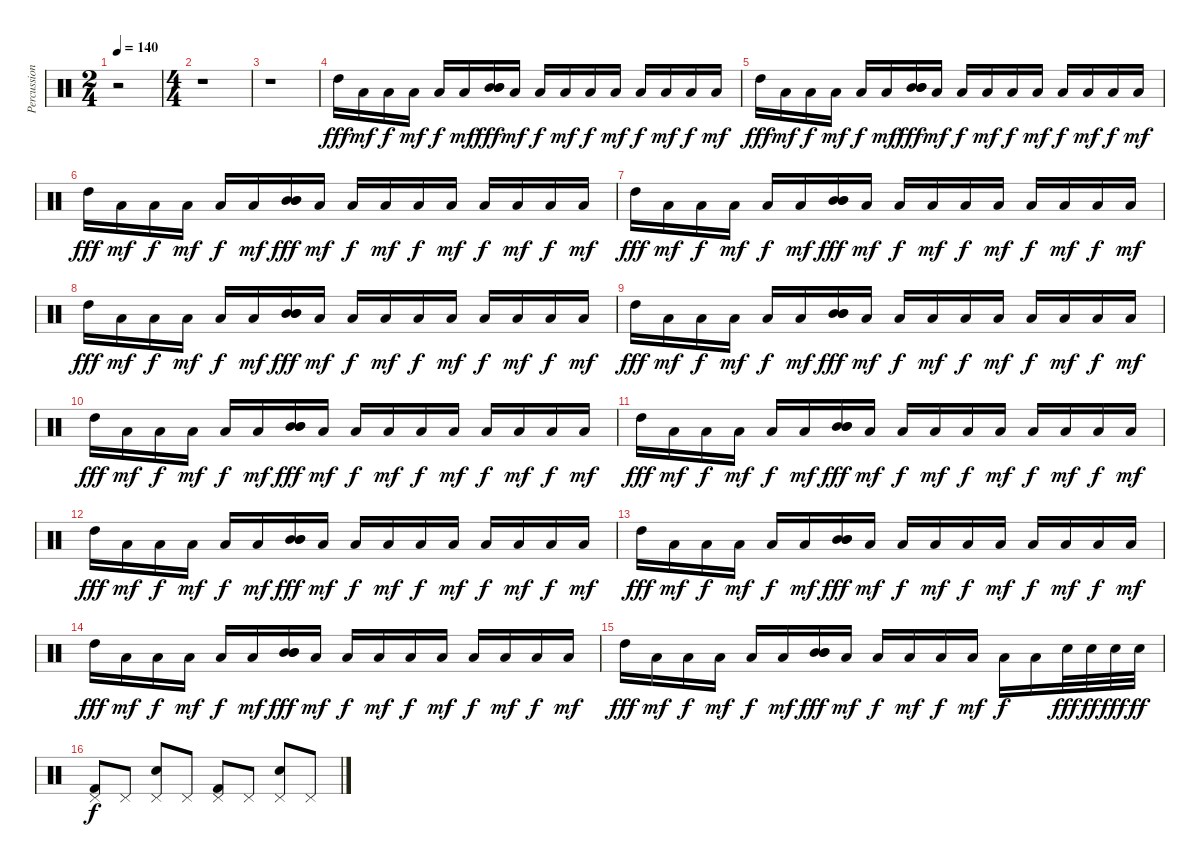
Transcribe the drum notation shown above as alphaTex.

\track ("Percussions" "Percussion") {instrument percussion}
\staff {score}
\articulation defaults
\ts (2 4)
\tempo 140
\clef neutral
\ks c
r.2{dy fff} |
\ts (4 4)
r.1 |
r.1 |
"High Tom (hit)".16 "Low Floor Tom (hit)".16{dy mf} "Low Floor Tom (hit)".16{dy f} "Low Floor Tom (hit)".16{dy mf} "Low Floor Tom (hit)".16{dy f} "Low Floor Tom (hit)".16{dy mf} ("Mid Tom (hit)" "Mid Tom (hit)" "Mid Tom (hit)").16{dy fff} "Low Floor Tom (hit)".16{dy mf} "Low Floor Tom (hit)".16{dy f} "Low Floor Tom (hit)".16{dy mf} "Low Floor Tom (hit)".16{dy f} "Low Floor Tom (hit)".16{dy mf} "Low Floor Tom (hit)".16{dy f} "Low Floor Tom (hit)".16{dy mf} "Low Floor Tom (hit)".16{dy f} "Low Floor Tom (hit)".16{dy mf} |
"High Tom (hit)".16{dy fff} "Low Floor Tom (hit)".16{dy mf} "Low Floor Tom (hit)".16{dy f} "Low Floor Tom (hit)".16{dy mf} "Low Floor Tom (hit)".16{dy f} "Low Floor Tom (hit)".16{dy mf} ("Mid Tom (hit)" "Mid Tom (hit)" "Mid Tom (hit)").16{dy fff} "Low Floor Tom (hit)".16{dy mf} "Low Floor Tom (hit)".16{dy f} "Low Floor Tom (hit)".16{dy mf} "Low Floor Tom (hit)".16{dy f} "Low Floor Tom (hit)".16{dy mf} "Low Floor Tom (hit)".16{dy f} "Low Floor Tom (hit)".16{dy mf} "Low Floor Tom (hit)".16{dy f} "Low Floor Tom (hit)".16{dy mf} |
"High Tom (hit)".16{dy fff} "Low Floor Tom (hit)".16{dy mf} "Low Floor Tom (hit)".16{dy f} "Low Floor Tom (hit)".16{dy mf} "Low Floor Tom (hit)".16{dy f} "Low Floor Tom (hit)".16{dy mf} ("Mid Tom (hit)" "Mid Tom (hit)" "Mid Tom (hit)").16{dy fff} "Low Floor Tom (hit)".16{dy mf} "Low Floor Tom (hit)".16{dy f} "Low Floor Tom (hit)".16{dy mf} "Low Floor Tom (hit)".16{dy f} "Low Floor Tom (hit)".16{dy mf} "Low Floor Tom (hit)".16{dy f} "Low Floor Tom (hit)".16{dy mf} "Low Floor Tom (hit)".16{dy f} "Low Floor Tom (hit)".16{dy mf} |
"High Tom (hit)".16{dy fff} "Low Floor Tom (hit)".16{dy mf} "Low Floor Tom (hit)".16{dy f} "Low Floor Tom (hit)".16{dy mf} "Low Floor Tom (hit)".16{dy f} "Low Floor Tom (hit)".16{dy mf} ("Mid Tom (hit)" "Mid Tom (hit)" "Mid Tom (hit)").16{dy fff} "Low Floor Tom (hit)".16{dy mf} "Low Floor Tom (hit)".16{dy f} "Low Floor Tom (hit)".16{dy mf} "Low Floor Tom (hit)".16{dy f} "Low Floor Tom (hit)".16{dy mf} "Low Floor Tom (hit)".16{dy f} "Low Floor Tom (hit)".16{dy mf} "Low Floor Tom (hit)".16{dy f} "Low Floor Tom (hit)".16{dy mf} |
"High Tom (hit)".16{dy fff} "Low Floor Tom (hit)".16{dy mf} "Low Floor Tom (hit)".16{dy f} "Low Floor Tom (hit)".16{dy mf} "Low Floor Tom (hit)".16{dy f} "Low Floor Tom (hit)".16{dy mf} ("Mid Tom (hit)" "Mid Tom (hit)" "Mid Tom (hit)").16{dy fff} "Low Floor Tom (hit)".16{dy mf} "Low Floor Tom (hit)".16{dy f} "Low Floor Tom (hit)".16{dy mf} "Low Floor Tom (hit)".16{dy f} "Low Floor Tom (hit)".16{dy mf} "Low Floor Tom (hit)".16{dy f} "Low Floor Tom (hit)".16{dy mf} "Low Floor Tom (hit)".16{dy f} "Low Floor Tom (hit)".16{dy mf} |
"High Tom (hit)".16{dy fff} "Low Floor Tom (hit)".16{dy mf} "Low Floor Tom (hit)".16{dy f} "Low Floor Tom (hit)".16{dy mf} "Low Floor Tom (hit)".16{dy f} "Low Floor Tom (hit)".16{dy mf} ("Mid Tom (hit)" "Mid Tom (hit)" "Mid Tom (hit)").16{dy fff} "Low Floor Tom (hit)".16{dy mf} "Low Floor Tom (hit)".16{dy f} "Low Floor Tom (hit)".16{dy mf} "Low Floor Tom (hit)".16{dy f} "Low Floor Tom (hit)".16{dy mf} "Low Floor Tom (hit)".16{dy f} "Low Floor Tom (hit)".16{dy mf} "Low Floor Tom (hit)".16{dy f} "Low Floor Tom (hit)".16{dy mf} |
"High Tom (hit)".16{dy fff} "Low Floor Tom (hit)".16{dy mf} "Low Floor Tom (hit)".16{dy f} "Low Floor Tom (hit)".16{dy mf} "Low Floor Tom (hit)".16{dy f} "Low Floor Tom (hit)".16{dy mf} ("Mid Tom (hit)" "Mid Tom (hit)" "Mid Tom (hit)").16{dy fff} "Low Floor Tom (hit)".16{dy mf} "Low Floor Tom (hit)".16{dy f} "Low Floor Tom (hit)".16{dy mf} "Low Floor Tom (hit)".16{dy f} "Low Floor Tom (hit)".16{dy mf} "Low Floor Tom (hit)".16{dy f} "Low Floor Tom (hit)".16{dy mf} "Low Floor Tom (hit)".16{dy f} "Low Floor Tom (hit)".16{dy mf} |
"High Tom (hit)".16{dy fff} "Low Floor Tom (hit)".16{dy mf} "Low Floor Tom (hit)".16{dy f} "Low Floor Tom (hit)".16{dy mf} "Low Floor Tom (hit)".16{dy f} "Low Floor Tom (hit)".16{dy mf} ("Mid Tom (hit)" "Mid Tom (hit)" "Mid Tom (hit)").16{dy fff} "Low Floor Tom (hit)".16{dy mf} "Low Floor Tom (hit)".16{dy f} "Low Floor Tom (hit)".16{dy mf} "Low Floor Tom (hit)".16{dy f} "Low Floor Tom (hit)".16{dy mf} "Low Floor Tom (hit)".16{dy f} "Low Floor Tom (hit)".16{dy mf} "Low Floor Tom (hit)".16{dy f} "Low Floor Tom (hit)".16{dy mf} |
"High Tom (hit)".16{dy fff} "Low Floor Tom (hit)".16{dy mf} "Low Floor Tom (hit)".16{dy f} "Low Floor Tom (hit)".16{dy mf} "Low Floor Tom (hit)".16{dy f} "Low Floor Tom (hit)".16{dy mf} ("Mid Tom (hit)" "Mid Tom (hit)" "Mid Tom (hit)").16{dy fff} "Low Floor Tom (hit)".16{dy mf} "Low Floor Tom (hit)".16{dy f} "Low Floor Tom (hit)".16{dy mf} "Low Floor Tom (hit)".16{dy f} "Low Floor Tom (hit)".16{dy mf} "Low Floor Tom (hit)".16{dy f} "Low Floor Tom (hit)".16{dy mf} "Low Floor Tom (hit)".16{dy f} "Low Floor Tom (hit)".16{dy mf} |
"High Tom (hit)".16{dy fff} "Low Floor Tom (hit)".16{dy mf} "Low Floor Tom (hit)".16{dy f} "Low Floor Tom (hit)".16{dy mf} "Low Floor Tom (hit)".16{dy f} "Low Floor Tom (hit)".16{dy mf} ("Mid Tom (hit)" "Mid Tom (hit)" "Mid Tom (hit)").16{dy fff} "Low Floor Tom (hit)".16{dy mf} "Low Floor Tom (hit)".16{dy f} "Low Floor Tom (hit)".16{dy mf} "Low Floor Tom (hit)".16{dy f} "Low Floor Tom (hit)".16{dy mf} "Low Floor Tom (hit)".16{dy f} "Low Floor Tom (hit)".16{dy mf} "Low Floor Tom (hit)".16{dy f} "Low Floor Tom (hit)".16{dy mf} |
"High Tom (hit)".16{dy fff} "Low Floor Tom (hit)".16{dy mf} "Low Floor Tom (hit)".16{dy f} "Low Floor Tom (hit)".16{dy mf} "Low Floor Tom (hit)".16{dy f} "Low Floor Tom (hit)".16{dy mf} ("Mid Tom (hit)" "Mid Tom (hit)" "Mid Tom (hit)").16{dy fff} "Low Floor Tom (hit)".16{dy mf} "Low Floor Tom (hit)".16{dy f} "Low Floor Tom (hit)".16{dy mf} "Low Floor Tom (hit)".16{dy f} "Low Floor Tom (hit)".16{dy mf} "Low Floor Tom (hit)".16{dy f} "Low Floor Tom (hit)".16{dy mf} "Low Floor Tom (hit)".16{dy f} "Low Floor Tom (hit)".16{dy mf} |
"High Tom (hit)".16{dy fff} "Low Floor Tom (hit)".16{dy mf} "Low Floor Tom (hit)".16{dy f} "Low Floor Tom (hit)".16{dy mf} "Low Floor Tom (hit)".16{dy f} "Low Floor Tom (hit)".16{dy mf} ("Mid Tom (hit)" "Mid Tom (hit)" "Mid Tom (hit)").16{dy fff} "Low Floor Tom (hit)".16{dy mf} "Low Floor Tom (hit)".16{dy f} "Low Floor Tom (hit)".16{dy mf} "Low Floor Tom (hit)".16{dy f} "Low Floor Tom (hit)".16{dy mf} "Low Floor Tom (hit)".16{dy f} "Low Floor Tom (hit)".16 "Electric Snare (hit)".32{dy fff} "Electric Snare (hit)".32{dy ff} "Electric Snare (hit)".32{dy fff} "Electric Snare (hit)".32{dy ff} |
("Pedal Hi-Hat (hit)" "Kick (hit) 2").8{dy f} "Pedal Hi-Hat (hit)".8 ("Pedal Hi-Hat (hit)" "Electric Snare (hit)").8 "Pedal Hi-Hat (hit)".8 ("Pedal Hi-Hat (hit)" "Kick (hit) 2").8 "Pedal Hi-Hat (hit)".8 ("Pedal Hi-Hat (hit)" "Electric Snare (hit)").8 "Pedal Hi-Hat (hit)".8
